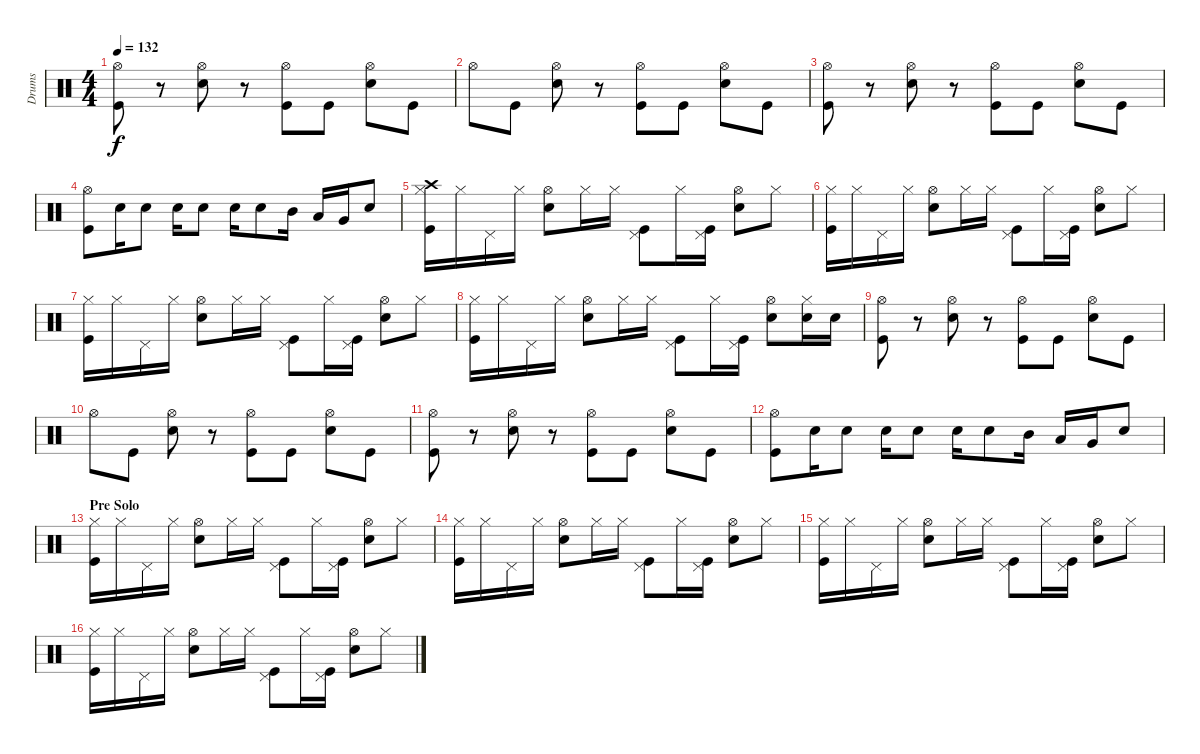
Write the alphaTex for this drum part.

\track ("Drums" "Drums") {instrument percussion}
\staff {score}
\articulation defaults
\ts (4 4)
\tempo 132
\clef neutral
\ks c
("Hi-Hat (open)" "Kick (hit)").8{dy f} r.8 ("Hi-Hat (open)" "Snare (hit) 2").8 r.8 ("Hi-Hat (open)" "Kick (hit)").8 "Kick (hit)".8 ("Hi-Hat (open)" "Snare (hit) 2").8 "Kick (hit)".8 |
"Hi-Hat (open)".8 "Kick (hit)".8 ("Hi-Hat (open)" "Snare (hit) 2").8 r.8 ("Hi-Hat (open)" "Kick (hit)").8 "Kick (hit)".8 ("Hi-Hat (open)" "Snare (hit) 2").8 "Kick (hit)".8 |
("Hi-Hat (open)" "Kick (hit)").8 r.8 ("Hi-Hat (open)" "Snare (hit) 2").8 r.8 ("Hi-Hat (open)" "Kick (hit)").8 "Kick (hit)".8 ("Hi-Hat (open)" "Snare (hit) 2").8 "Kick (hit)".8 |
("Hi-Hat (open)" "Kick (hit)").8 "Snare (hit) 2".16 "Snare (hit) 2".8 "Snare (hit) 2".16 "Snare (hit) 2".8 "Snare (hit) 2".16 "Snare (hit) 2".8 "Mid Tom (hit)".16 "Low Tom (hit)".16 "Very Low Tom (hit)".16 "Snare (hit) 2".8 |
("Hi-Hat (closed)" "Crash high (hit)" "Kick (hit)").16 "Hi-Hat (closed)".16 "Pedal Hi-Hat (hit)".16 "Hi-Hat (closed)".16 ("Hi-Hat (open)" "Snare (hit) 2").8 "Hi-Hat (closed)".16 "Hi-Hat (closed)".16 ("Pedal Hi-Hat (hit)" "Kick (hit)").8 "Hi-Hat (closed)".16 ("Pedal Hi-Hat (hit)" "Kick (hit)").16 ("Hi-Hat (open)" "Snare (hit) 2").8 "Hi-Hat (closed)".8 |
("Hi-Hat (closed)" "Kick (hit)").16 "Hi-Hat (closed)".16 "Pedal Hi-Hat (hit)".16 "Hi-Hat (closed)".16 ("Hi-Hat (open)" "Snare (hit) 2").8 "Hi-Hat (closed)".16 "Hi-Hat (closed)".16 ("Pedal Hi-Hat (hit)" "Kick (hit)").8 "Hi-Hat (closed)".16 ("Pedal Hi-Hat (hit)" "Kick (hit)").16 ("Hi-Hat (open)" "Snare (hit) 2").8 "Hi-Hat (closed)".8 |
("Hi-Hat (closed)" "Kick (hit)").16 "Hi-Hat (closed)".16 "Pedal Hi-Hat (hit)".16 "Hi-Hat (closed)".16 ("Hi-Hat (open)" "Snare (hit) 2").8 "Hi-Hat (closed)".16 "Hi-Hat (closed)".16 ("Pedal Hi-Hat (hit)" "Kick (hit)").8 "Hi-Hat (closed)".16 ("Pedal Hi-Hat (hit)" "Kick (hit)").16 ("Hi-Hat (open)" "Snare (hit) 2").8 "Hi-Hat (closed)".8 |
("Hi-Hat (closed)" "Kick (hit)").16 "Hi-Hat (closed)".16 "Pedal Hi-Hat (hit)".16 "Hi-Hat (closed)".16 ("Hi-Hat (open)" "Snare (hit) 2").8 "Hi-Hat (closed)".16 "Hi-Hat (closed)".16 ("Pedal Hi-Hat (hit)" "Kick (hit)").8 "Hi-Hat (closed)".16 ("Pedal Hi-Hat (hit)" "Kick (hit)").16 ("Hi-Hat (open)" "Snare (hit) 2").8 ("Hi-Hat (closed)" "Snare (hit) 2").16 "Snare (hit) 2".16 |
("Hi-Hat (open)" "Kick (hit)").8 r.8 ("Hi-Hat (open)" "Snare (hit) 2").8 r.8 ("Hi-Hat (open)" "Kick (hit)").8 "Kick (hit)".8 ("Hi-Hat (open)" "Snare (hit) 2").8 "Kick (hit)".8 |
"Hi-Hat (open)".8 "Kick (hit)".8 ("Hi-Hat (open)" "Snare (hit) 2").8 r.8 ("Hi-Hat (open)" "Kick (hit)").8 "Kick (hit)".8 ("Hi-Hat (open)" "Snare (hit) 2").8 "Kick (hit)".8 |
("Hi-Hat (open)" "Kick (hit)").8 r.8 ("Hi-Hat (open)" "Snare (hit) 2").8 r.8 ("Hi-Hat (open)" "Kick (hit)").8 "Kick (hit)".8 ("Hi-Hat (open)" "Snare (hit) 2").8 "Kick (hit)".8 |
("Hi-Hat (open)" "Kick (hit)").8 "Snare (hit) 2".16 "Snare (hit) 2".8 "Snare (hit) 2".16 "Snare (hit) 2".8 "Snare (hit) 2".16 "Snare (hit) 2".8 "Mid Tom (hit)".16 "Low Tom (hit)".16 "Very Low Tom (hit)".16 "Snare (hit) 2".8 |
\section ("" "Pre Solo")
("Hi-Hat (closed)" "Kick (hit)").16 "Hi-Hat (closed)".16 "Pedal Hi-Hat (hit)".16 "Hi-Hat (closed)".16 ("Hi-Hat (open)" "Snare (hit) 2").8 "Hi-Hat (closed)".16 "Hi-Hat (closed)".16 ("Pedal Hi-Hat (hit)" "Kick (hit)").8 "Hi-Hat (closed)".16 ("Pedal Hi-Hat (hit)" "Kick (hit)").16 ("Hi-Hat (open)" "Snare (hit) 2").8 "Hi-Hat (closed)".8 |
("Hi-Hat (closed)" "Kick (hit)").16 "Hi-Hat (closed)".16 "Pedal Hi-Hat (hit)".16 "Hi-Hat (closed)".16 ("Hi-Hat (open)" "Snare (hit) 2").8 "Hi-Hat (closed)".16 "Hi-Hat (closed)".16 ("Pedal Hi-Hat (hit)" "Kick (hit)").8 "Hi-Hat (closed)".16 ("Pedal Hi-Hat (hit)" "Kick (hit)").16 ("Hi-Hat (open)" "Snare (hit) 2").8 "Hi-Hat (closed)".8 |
("Hi-Hat (closed)" "Kick (hit)").16 "Hi-Hat (closed)".16 "Pedal Hi-Hat (hit)".16 "Hi-Hat (closed)".16 ("Hi-Hat (open)" "Snare (hit) 2").8 "Hi-Hat (closed)".16 "Hi-Hat (closed)".16 ("Pedal Hi-Hat (hit)" "Kick (hit)").8 "Hi-Hat (closed)".16 ("Pedal Hi-Hat (hit)" "Kick (hit)").16 ("Hi-Hat (open)" "Snare (hit) 2").8 "Hi-Hat (closed)".8 |
("Hi-Hat (closed)" "Kick (hit)").16 "Hi-Hat (closed)".16 "Pedal Hi-Hat (hit)".16 "Hi-Hat (closed)".16 ("Hi-Hat (open)" "Snare (hit) 2").8 "Hi-Hat (closed)".16 "Hi-Hat (closed)".16 ("Pedal Hi-Hat (hit)" "Kick (hit)").8 "Hi-Hat (closed)".16 ("Pedal Hi-Hat (hit)" "Kick (hit)").16 ("Hi-Hat (open)" "Snare (hit) 2").8 "Hi-Hat (closed)".8
